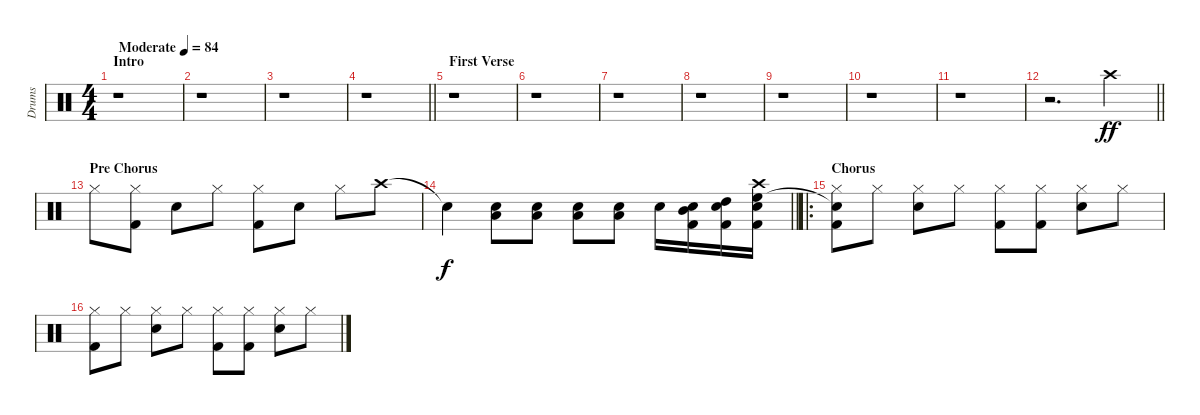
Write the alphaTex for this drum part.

\track ("Drums" "Drums") {instrument percussion}
\staff {score}
\articulation defaults
\ts (4 4)
\section ("" "Intro")
\tempo (84 "Moderate")
\clef neutral
\ks c
r.1{dy ff} |
r.1 |
r.1 |
\barLineRight lightlight
r.1 |
\section ("" "First Verse")
r.1 |
r.1 |
r.1 |
r.1 |
r.1 |
r.1 |
r.1 |
\barLineRight lightlight
r.2{d} "Crash high (hit)".4 |
\section ("" "Pre Chorus")
"Hi-Hat (closed)".8 ("Hi-Hat (closed)" "Kick (hit) 2").8 "Snare (hit) 2".8 "Hi-Hat (closed)".8 ("Hi-Hat (closed)" "Kick (hit) 2").8 "Snare (hit) 2".8 "Hi-Hat (closed)".8 "Crash high (hit)".8 |
\barLineRight lightlight "Snare (hit)"{t}.4{dy f}
("Low Tom (hit)" "Snare (hit) 2").8 ("Low Tom (hit)" "Snare (hit) 2").8 ("Low Tom (hit)" "Snare (hit) 2").8 ("Low Tom (hit)" "Snare (hit) 2").8 "Snare (hit) 2".16 ("Snare (hit) 2" "Kick (hit) 2" "Mid Tom (hit)").16 ("Snare (hit) 2" "Kick (hit) 2" "High Tom (hit)").16 ("Snare (hit) 2" "Kick (hit) 2" "High Floor Tom (hit)" "Crash high (hit)").16 |
\ro
\section ("" "Chorus")
("Hi-Hat (closed)" "Kick (hit) 2" "Snare (hit)"{t}).8 "Hi-Hat (closed)".8 ("Hi-Hat (closed)" "Snare (hit) 2").8 "Hi-Hat (closed)".8 ("Hi-Hat (closed)" "Kick (hit) 2").8 ("Hi-Hat (closed)" "Kick (hit) 2").8 ("Hi-Hat (closed)" "Snare (hit) 2").8 "Hi-Hat (closed)".8 |
("Hi-Hat (closed)" "Kick (hit) 2").8 "Hi-Hat (closed)".8 ("Hi-Hat (closed)" "Snare (hit) 2").8 "Hi-Hat (closed)".8 ("Hi-Hat (closed)" "Kick (hit) 2").8 ("Hi-Hat (closed)" "Kick (hit) 2").8 ("Hi-Hat (closed)" "Snare (hit) 2").8 "Hi-Hat (closed)".8
